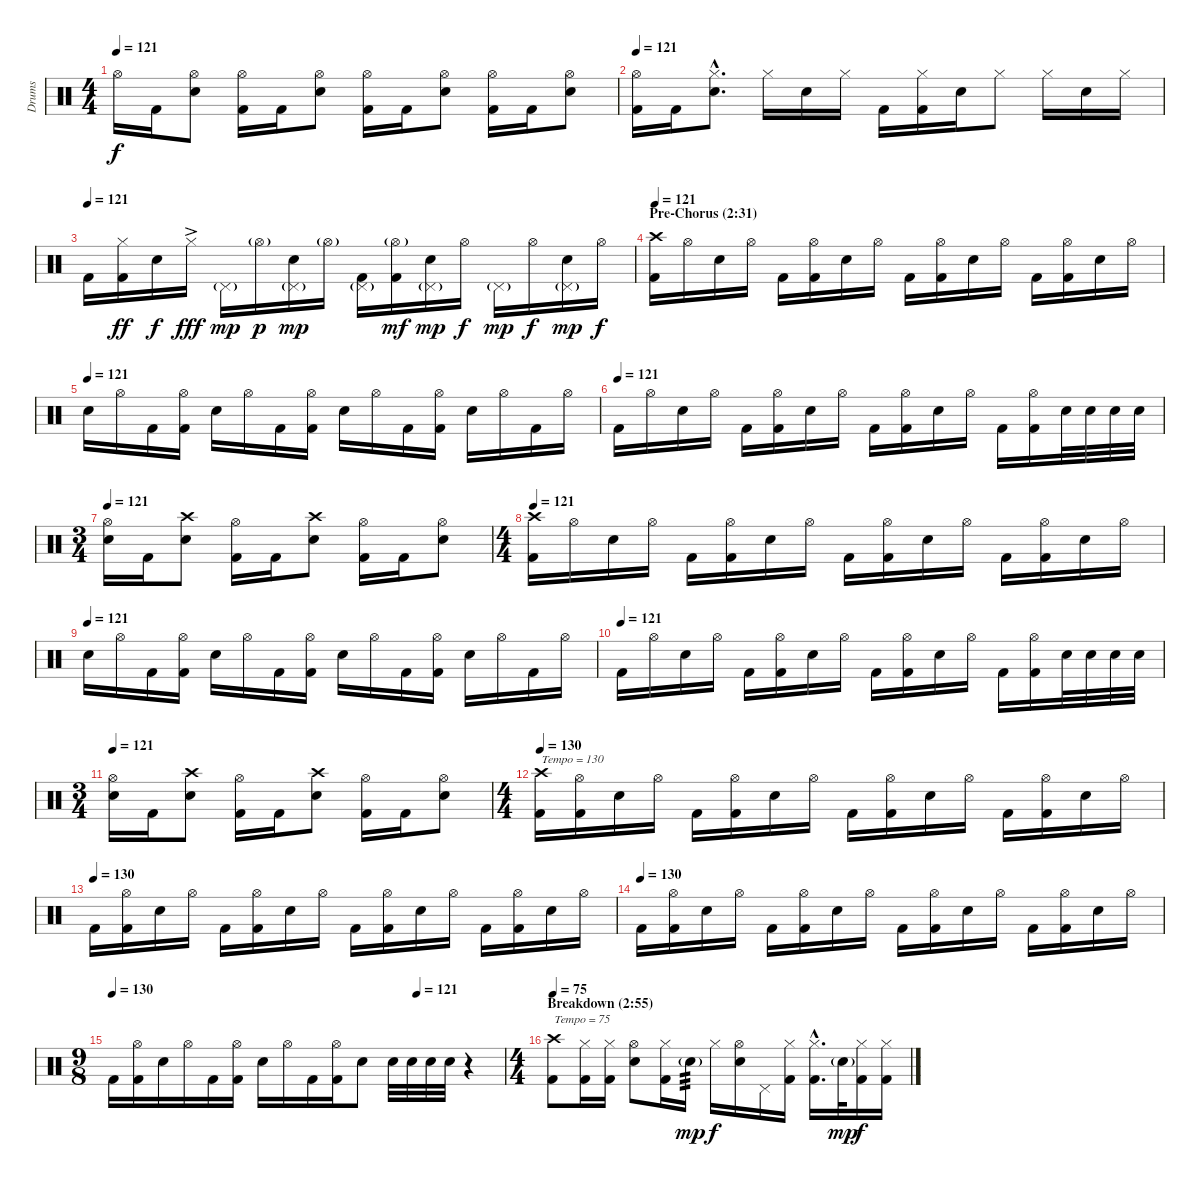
\track ("Drums" "Drums") {instrument percussion}
\staff {score}
\articulation defaults
\ts (4 4)
\tempo 121
\clef neutral
\ks c "Hi-Hat (open)".16{dy f} "Kick (hit) 2".16
("Hi-Hat (open)" "Snare (hit) 2").8 ("Hi-Hat (open)" "Kick (hit) 2").16 "Kick (hit) 2".16 ("Hi-Hat (open)" "Snare (hit) 2").8 ("Hi-Hat (open)" "Kick (hit) 2").16 "Kick (hit) 2".16 ("Hi-Hat (open)" "Snare (hit) 2").8 ("Hi-Hat (open)" "Kick (hit) 2").16 "Kick (hit) 2".16 ("Hi-Hat (open)" "Snare (hit) 2").8 |
\tempo 121
("Hi-Hat (open)" "Kick (hit) 2").16 "Kick (hit) 2".16 ("Hi-Hat (closed)"{hac} "Snare (hit) 2"{hac}).8{d} "Hi-Hat (closed)".16 "Snare (hit) 2".16 "Hi-Hat (closed)".16 "Kick (hit) 2".16 ("Hi-Hat (closed)" "Kick (hit) 2").16 "Snare (hit) 2".16 "Hi-Hat (closed)".8 "Hi-Hat (closed)".16 "Snare (hit) 2".16 "Hi-Hat (closed)".16 |
\tempo (121)
"Kick (hit) 2".16 ("Hi-Hat (closed)" "Kick (hit) 2").16{dy ff} "Snare (hit) 2".16{dy f} "Hi-Hat (closed)"{ac}.16{dy fff} "Pedal Hi-Hat (hit)"{g}.16{dy mp} "Hi-Hat (open)"{g}.16{dy p} ("Pedal Hi-Hat (hit)"{g} "Snare (hit) 2").16{dy mp} "Hi-Hat (open)"{g}.16 ("Pedal Hi-Hat (hit)"{g} "Kick (hit) 2").16 ("Hi-Hat (open)"{g} "Kick (hit) 2").16{dy mf} ("Pedal Hi-Hat (hit)"{g} "Snare (hit) 2").16{dy mp} "Hi-Hat (open)".16{dy f} "Pedal Hi-Hat (hit)"{g}.16{dy mp} "Hi-Hat (open)".16{dy f} ("Pedal Hi-Hat (hit)"{g} "Snare (hit) 2").16{dy mp} "Hi-Hat (open)".16{dy f} |
\section ("" "Pre-Chorus (2:31)")
\tempo 121
("Crash high (hit)" "Kick (hit) 2").16 "Hi-Hat (open)".16 "Snare (hit) 2".16 "Hi-Hat (open)".16 "Kick (hit) 2".16 ("Hi-Hat (open)" "Kick (hit) 2").16 "Snare (hit) 2".16 "Hi-Hat (open)".16 "Kick (hit) 2".16 ("Hi-Hat (open)" "Kick (hit) 2").16 "Snare (hit) 2".16 "Hi-Hat (open)".16 "Kick (hit) 2".16 ("Hi-Hat (open)" "Kick (hit) 2").16 "Snare (hit) 2".16 "Hi-Hat (open)".16 |
\tempo (121)
"Snare (hit) 2".16 "Hi-Hat (open)".16 "Kick (hit) 2".16 ("Hi-Hat (open)" "Kick (hit) 2").16 "Snare (hit) 2".16 "Hi-Hat (open)".16 "Kick (hit) 2".16 ("Hi-Hat (open)" "Kick (hit) 2").16 "Snare (hit) 2".16 "Hi-Hat (open)".16 "Kick (hit) 2".16 ("Hi-Hat (open)" "Kick (hit) 2").16 "Snare (hit) 2".16 "Hi-Hat (open)".16 "Kick (hit) 2".16 "Hi-Hat (open)".16 |
\tempo (121)
"Kick (hit) 2".16 "Hi-Hat (open)".16 "Snare (hit) 2".16 "Hi-Hat (open)".16 "Kick (hit) 2".16 ("Hi-Hat (open)" "Kick (hit) 2").16 "Snare (hit) 2".16 "Hi-Hat (open)".16 "Kick (hit) 2".16 ("Hi-Hat (open)" "Kick (hit) 2").16 "Snare (hit) 2".16 "Hi-Hat (open)".16 "Kick (hit) 2".16 ("Hi-Hat (open)" "Kick (hit) 2").16 "Snare (hit) 2".32 "Snare (hit) 2".32 "Snare (hit) 2".32 "Snare (hit) 2".32 |
\ts (3 4)
\tempo 121
("Hi-Hat (open)" "Snare (hit) 2").16 "Kick (hit) 2".16 ("Crash high (hit)" "Snare (hit) 2").8 ("Hi-Hat (open)" "Kick (hit) 2").16 "Kick (hit) 2".16 ("Crash high (hit)" "Snare (hit) 2").8 ("Hi-Hat (open)" "Kick (hit) 2").16 "Kick (hit) 2".16 ("Hi-Hat (open)" "Snare (hit) 2").8 |
\ts (4 4)
\tempo 121
("Crash high (hit)" "Kick (hit) 2").16 "Hi-Hat (open)".16 "Snare (hit) 2".16 "Hi-Hat (open)".16 "Kick (hit) 2".16 ("Hi-Hat (open)" "Kick (hit) 2").16 "Snare (hit) 2".16 "Hi-Hat (open)".16 "Kick (hit) 2".16 ("Hi-Hat (open)" "Kick (hit) 2").16 "Snare (hit) 2".16 "Hi-Hat (open)".16 "Kick (hit) 2".16 ("Hi-Hat (open)" "Kick (hit) 2").16 "Snare (hit) 2".16 "Hi-Hat (open)".16 |
\tempo (121)
"Snare (hit) 2".16 "Hi-Hat (open)".16 "Kick (hit) 2".16 ("Hi-Hat (open)" "Kick (hit) 2").16 "Snare (hit) 2".16 "Hi-Hat (open)".16 "Kick (hit) 2".16 ("Hi-Hat (open)" "Kick (hit) 2").16 "Snare (hit) 2".16 "Hi-Hat (open)".16 "Kick (hit) 2".16 ("Hi-Hat (open)" "Kick (hit) 2").16 "Snare (hit) 2".16 "Hi-Hat (open)".16 "Kick (hit) 2".16 "Hi-Hat (open)".16 |
\tempo (121)
"Kick (hit) 2".16 "Hi-Hat (open)".16 "Snare (hit) 2".16 "Hi-Hat (open)".16 "Kick (hit) 2".16 ("Hi-Hat (open)" "Kick (hit) 2").16 "Snare (hit) 2".16 "Hi-Hat (open)".16 "Kick (hit) 2".16 ("Hi-Hat (open)" "Kick (hit) 2").16 "Snare (hit) 2".16 "Hi-Hat (open)".16 "Kick (hit) 2".16 ("Hi-Hat (open)" "Kick (hit) 2").16 "Snare (hit) 2".32 "Snare (hit) 2".32 "Snare (hit) 2".32 "Snare (hit) 2".32 |
\ts (3 4)
\tempo 121
("Hi-Hat (open)" "Snare (hit) 2").16 "Kick (hit) 2".16 ("Crash high (hit)" "Snare (hit) 2").8 ("Hi-Hat (open)" "Kick (hit) 2").16 "Kick (hit) 2".16 ("Crash high (hit)" "Snare (hit) 2").8 ("Hi-Hat (open)" "Kick (hit) 2").16 "Kick (hit) 2".16 ("Hi-Hat (open)" "Snare (hit) 2").8 |
\ts (4 4)
\tempo 130
("Crash high (hit)" "Kick (hit) 2").16{txt "Tempo = 130"} ("Hi-Hat (open)" "Kick (hit) 2").16 "Snare (hit) 2".16 "Hi-Hat (open)".16 "Kick (hit) 2".16 ("Hi-Hat (open)" "Kick (hit) 2").16 "Snare (hit) 2".16 "Hi-Hat (open)".16 "Kick (hit) 2".16 ("Hi-Hat (open)" "Kick (hit) 2").16 "Snare (hit) 2".16 "Hi-Hat (open)".16 "Kick (hit) 2".16 ("Hi-Hat (open)" "Kick (hit) 2").16 "Snare (hit) 2".16 "Hi-Hat (open)".16 |
\tempo (130)
"Kick (hit) 2".16 ("Hi-Hat (open)" "Kick (hit) 2").16 "Snare (hit) 2".16 "Hi-Hat (open)".16 "Kick (hit) 2".16 ("Hi-Hat (open)" "Kick (hit) 2").16 "Snare (hit) 2".16 "Hi-Hat (open)".16 "Kick (hit) 2".16 ("Hi-Hat (open)" "Kick (hit) 2").16 "Snare (hit) 2".16 "Hi-Hat (open)".16 "Kick (hit) 2".16 ("Hi-Hat (open)" "Kick (hit) 2").16 "Snare (hit) 2".16 "Hi-Hat (open)".16 |
\tempo (130)
"Kick (hit) 2".16 ("Hi-Hat (open)" "Kick (hit) 2").16 "Snare (hit) 2".16 "Hi-Hat (open)".16 "Kick (hit) 2".16 ("Hi-Hat (open)" "Kick (hit) 2").16 "Snare (hit) 2".16 "Hi-Hat (open)".16 "Kick (hit) 2".16 ("Hi-Hat (open)" "Kick (hit) 2").16 "Snare (hit) 2".16 "Hi-Hat (open)".16 "Kick (hit) 2".16 ("Hi-Hat (open)" "Kick (hit) 2").16 "Snare (hit) 2".16 "Hi-Hat (open)".16 |
\ts (9 8)
\tempo 130
\tempo (121 0.7777777777777778)
"Kick (hit) 2".16 ("Hi-Hat (open)" "Kick (hit) 2").16 "Snare (hit) 2".16 "Hi-Hat (open)".16 "Kick (hit) 2".16 ("Hi-Hat (open)" "Kick (hit) 2").16 "Snare (hit) 2".16 "Hi-Hat (open)".16 "Kick (hit) 2".16 ("Hi-Hat (open)" "Kick (hit) 2").16 "Snare (hit) 2".8 "Snare (hit) 2".32 "Snare (hit) 2".32 "Snare (hit) 2".32 "Snare (hit) 2".32 r.4 |
\ts (4 4)
\section ("" "Breakdown (2:55)")
\tempo 75
("Crash high (hit)" "Kick (hit) 2").8{txt "Tempo = 75"} ("Hi-Hat (closed)" "Kick (hit) 2").16 ("Hi-Hat (closed)" "Kick (hit) 2").16 ("Hi-Hat (open)" "Snare (hit) 2").8 ("Hi-Hat (closed)" "Kick (hit) 2").16 "Snare (hit) 2"{g}.16{tp 3 dy mp} "Hi-Hat (closed)".16{dy f} ("Hi-Hat (open)" "Snare (hit) 2").16 "Pedal Hi-Hat (hit)".16 ("Hi-Hat (closed)" "Kick (hit) 2").16 ("Hi-Hat (closed)"{hac} "Kick (hit) 2"{hac}).16{d} "Snare (hit) 2"{g}.32{dy mp} ("Hi-Hat (closed)" "Kick (hit) 2").16{dy f} ("Hi-Hat (closed)" "Kick (hit) 2").16
